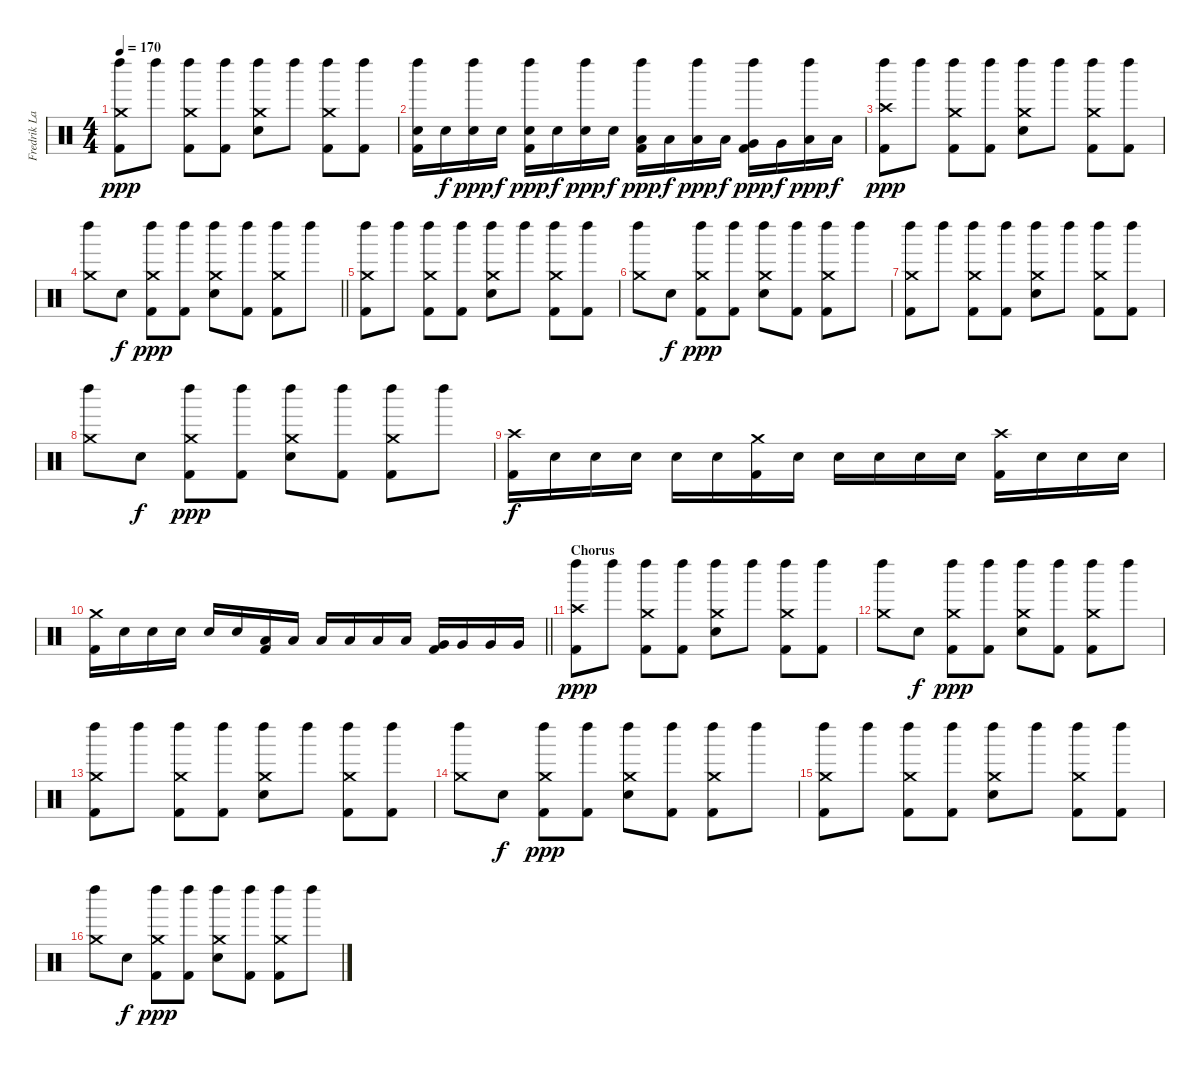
\track ("Fredrik Larzon - Percussion" "Fredrik La") {instrument percussion}
\staff {score}
\articulation defaults
\ts (4 4)
\tempo 170
\clef neutral
\ks c
("Crash medium (hit)" "Left Maraca (hit)" "Kick (hit) 2").8{dy ppp} "Left Maraca (hit)".8 ("Crash medium (hit)" "Left Maraca (hit)" "Kick (hit) 2").8 ("Left Maraca (hit)" "Kick (hit) 2").8 ("Crash medium (hit)" "Left Maraca (hit)" "Electric Snare (hit)").8 "Left Maraca (hit)".8 ("Crash medium (hit)" "Left Maraca (hit)" "Kick (hit) 2").8 ("Left Maraca (hit)" "Kick (hit) 2").8 |
("Left Maraca (hit)" "Electric Snare (hit)" "Kick (hit) 2").16 "Electric Snare (hit)".16{dy f} ("Left Maraca (hit)" "Electric Snare (hit)").16{dy ppp} "Electric Snare (hit)".16{dy f} ("Left Maraca (hit)" "Electric Snare (hit)" "Kick (hit) 2").16{dy ppp} "Electric Snare (hit)".16{dy f} ("Left Maraca (hit)" "Electric Snare (hit)").16{dy ppp} "Electric Snare (hit)".16{dy f} ("Left Maraca (hit)" "Low Tom (hit)" "Kick (hit) 2").16{dy ppp} "Low Tom (hit)".16{dy f} ("Left Maraca (hit)" "Low Tom (hit)").16{dy ppp} "Low Tom (hit)".16{dy f} ("Left Maraca (hit)" "Very Low Tom (hit)" "Kick (hit) 2").16{dy ppp} "Very Low Tom (hit)".16{dy f} ("Left Maraca (hit)" "Low Floor Tom (hit)").16{dy ppp} "Low Floor Tom (hit)".16{dy f} |
("Crash high (hit)" "Left Maraca (hit)" "Kick (hit) 2").8{dy ppp} "Left Maraca (hit)".8 ("Crash medium (hit)" "Left Maraca (hit)" "Kick (hit) 2").8 ("Left Maraca (hit)" "Kick (hit) 2").8 ("Crash medium (hit)" "Left Maraca (hit)" "Electric Snare (hit)").8 "Left Maraca (hit)".8 ("Crash medium (hit)" "Left Maraca (hit)" "Kick (hit) 2").8 ("Left Maraca (hit)" "Kick (hit) 2").8 |
\barLineRight lightlight
("Crash medium (hit)" "Left Maraca (hit)").8 "Electric Snare (hit)".8{dy f} ("Crash medium (hit)" "Left Maraca (hit)" "Kick (hit) 2").8{dy ppp} ("Left Maraca (hit)" "Kick (hit) 2").8 ("Crash medium (hit)" "Left Maraca (hit)" "Electric Snare (hit)").8 ("Left Maraca (hit)" "Kick (hit) 2").8 ("Crash medium (hit)" "Left Maraca (hit)" "Kick (hit) 2").8 "Left Maraca (hit)".8 |
("Crash medium (hit)" "Left Maraca (hit)" "Kick (hit) 2").8 "Left Maraca (hit)".8 ("Crash medium (hit)" "Left Maraca (hit)" "Kick (hit) 2").8 ("Left Maraca (hit)" "Kick (hit) 2").8 ("Crash medium (hit)" "Left Maraca (hit)" "Electric Snare (hit)").8 "Left Maraca (hit)".8 ("Crash medium (hit)" "Left Maraca (hit)" "Kick (hit) 2").8 ("Left Maraca (hit)" "Kick (hit) 2").8 |
("Crash medium (hit)" "Left Maraca (hit)").8 "Electric Snare (hit)".8{dy f} ("Crash medium (hit)" "Left Maraca (hit)" "Kick (hit) 2").8{dy ppp} ("Left Maraca (hit)" "Kick (hit) 2").8 ("Crash medium (hit)" "Left Maraca (hit)" "Electric Snare (hit)").8 ("Left Maraca (hit)" "Kick (hit) 2").8 ("Crash medium (hit)" "Left Maraca (hit)" "Kick (hit) 2").8 "Left Maraca (hit)".8 |
("Crash medium (hit)" "Left Maraca (hit)" "Kick (hit) 2").8 "Left Maraca (hit)".8 ("Crash medium (hit)" "Left Maraca (hit)" "Kick (hit) 2").8 ("Left Maraca (hit)" "Kick (hit) 2").8 ("Crash medium (hit)" "Left Maraca (hit)" "Electric Snare (hit)").8 "Left Maraca (hit)".8 ("Crash medium (hit)" "Left Maraca (hit)" "Kick (hit) 2").8 ("Left Maraca (hit)" "Kick (hit) 2").8 |
("Crash medium (hit)" "Left Maraca (hit)").8 "Electric Snare (hit)".8{dy f} ("Crash medium (hit)" "Left Maraca (hit)" "Kick (hit) 2").8{dy ppp} ("Left Maraca (hit)" "Kick (hit) 2").8 ("Crash medium (hit)" "Left Maraca (hit)" "Electric Snare (hit)").8 ("Left Maraca (hit)" "Kick (hit) 2").8 ("Crash medium (hit)" "Left Maraca (hit)" "Kick (hit) 2").8 "Left Maraca (hit)".8 |
("Crash high (hit)" "Kick (hit) 2").16{dy f} "Electric Snare (hit)".16 "Electric Snare (hit)".16 "Electric Snare (hit)".16 "Electric Snare (hit)".16 "Electric Snare (hit)".16 ("Crash medium (hit)" "Kick (hit) 2").16 "Electric Snare (hit)".16 "Electric Snare (hit)".16 "Electric Snare (hit)".16 "Electric Snare (hit)".16 "Electric Snare (hit)".16 ("Crash high (hit)" "Kick (hit) 2").16 "Electric Snare (hit)".16 "Electric Snare (hit)".16 "Electric Snare (hit)".16 |
\barLineRight lightlight
("Crash medium (hit)" "Kick (hit) 2").16 "Electric Snare (hit)".16 "Electric Snare (hit)".16 "Electric Snare (hit)".16 "Electric Snare (hit)".16 "Electric Snare (hit)".16 ("Low Tom (hit)" "Kick (hit) 2").16 "Low Tom (hit)".16 "Low Tom (hit)".16 "Low Tom (hit)".16 "Low Tom (hit)".16 "Low Tom (hit)".16 ("Very Low Tom (hit)" "Kick (hit) 2").16 "Very Low Tom (hit)".16 "Very Low Tom (hit)".16 "Very Low Tom (hit)".16 |
\section ("" "Chorus")
("Crash high (hit)" "Left Maraca (hit)" "Kick (hit) 2").8{dy ppp} "Left Maraca (hit)".8 ("Crash medium (hit)" "Left Maraca (hit)" "Kick (hit) 2").8 ("Left Maraca (hit)" "Kick (hit) 2").8 ("Crash medium (hit)" "Left Maraca (hit)" "Electric Snare (hit)").8 "Left Maraca (hit)".8 ("Crash medium (hit)" "Left Maraca (hit)" "Kick (hit) 2").8 ("Left Maraca (hit)" "Kick (hit) 2").8 |
("Crash medium (hit)" "Left Maraca (hit)").8 "Electric Snare (hit)".8{dy f} ("Crash medium (hit)" "Left Maraca (hit)" "Kick (hit) 2").8{dy ppp} ("Left Maraca (hit)" "Kick (hit) 2").8 ("Crash medium (hit)" "Left Maraca (hit)" "Electric Snare (hit)").8 ("Left Maraca (hit)" "Kick (hit) 2").8 ("Crash medium (hit)" "Left Maraca (hit)" "Kick (hit) 2").8 "Left Maraca (hit)".8 |
("Crash medium (hit)" "Left Maraca (hit)" "Kick (hit) 2").8 "Left Maraca (hit)".8 ("Crash medium (hit)" "Left Maraca (hit)" "Kick (hit) 2").8 ("Left Maraca (hit)" "Kick (hit) 2").8 ("Crash medium (hit)" "Left Maraca (hit)" "Electric Snare (hit)").8 "Left Maraca (hit)".8 ("Crash medium (hit)" "Left Maraca (hit)" "Kick (hit) 2").8 ("Left Maraca (hit)" "Kick (hit) 2").8 |
("Crash medium (hit)" "Left Maraca (hit)").8 "Electric Snare (hit)".8{dy f} ("Crash medium (hit)" "Left Maraca (hit)" "Kick (hit) 2").8{dy ppp} ("Left Maraca (hit)" "Kick (hit) 2").8 ("Crash medium (hit)" "Left Maraca (hit)" "Electric Snare (hit)").8 ("Left Maraca (hit)" "Kick (hit) 2").8 ("Crash medium (hit)" "Left Maraca (hit)" "Kick (hit) 2").8 "Left Maraca (hit)".8 |
("Crash medium (hit)" "Left Maraca (hit)" "Kick (hit) 2").8 "Left Maraca (hit)".8 ("Crash medium (hit)" "Left Maraca (hit)" "Kick (hit) 2").8 ("Left Maraca (hit)" "Kick (hit) 2").8 ("Crash medium (hit)" "Left Maraca (hit)" "Electric Snare (hit)").8 "Left Maraca (hit)".8 ("Crash medium (hit)" "Left Maraca (hit)" "Kick (hit) 2").8 ("Left Maraca (hit)" "Kick (hit) 2").8 |
("Crash medium (hit)" "Left Maraca (hit)").8 "Electric Snare (hit)".8{dy f} ("Crash medium (hit)" "Left Maraca (hit)" "Kick (hit) 2").8{dy ppp} ("Left Maraca (hit)" "Kick (hit) 2").8 ("Crash medium (hit)" "Left Maraca (hit)" "Electric Snare (hit)").8 ("Left Maraca (hit)" "Kick (hit) 2").8 ("Crash medium (hit)" "Left Maraca (hit)" "Kick (hit) 2").8 "Left Maraca (hit)".8
